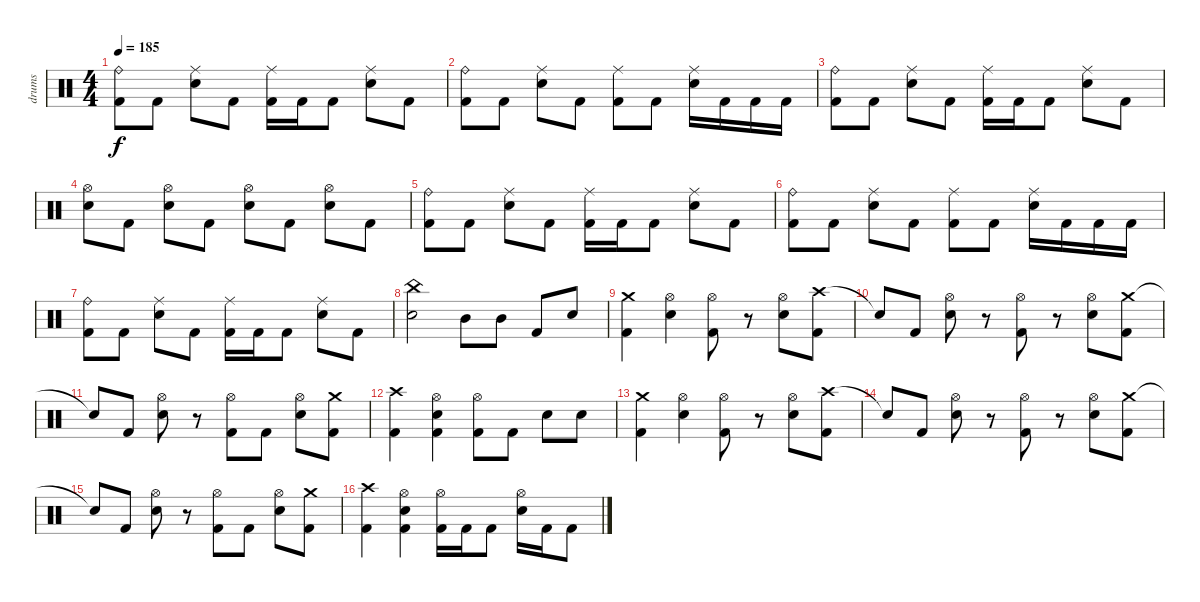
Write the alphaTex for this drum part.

\track ("drums" "drums") {instrument percussion}
\staff {score}
\articulation defaults
\ts (4 4)
\tempo 185
\clef neutral
\ks c
("Ride (bell)" "Kick (hit) 2").8{dy f} "Kick (hit) 2".8 ("Ride (middle)" "Snare (hit) 2").8 "Kick (hit) 2".8 ("Ride (middle)" "Kick (hit) 2").16 "Kick (hit) 2".16 "Kick (hit) 2".8 ("Ride (middle)" "Snare (hit) 2").8 "Kick (hit) 2".8 |
("Ride (bell)" "Kick (hit) 2").8 "Kick (hit) 2".8 ("Ride (middle)" "Snare (hit) 2").8 "Kick (hit) 2".8 ("Ride (middle)" "Kick (hit) 2").8 "Kick (hit) 2".8 ("Ride (middle)" "Snare (hit) 2").16 "Kick (hit) 2".16 "Kick (hit) 2".16 "Kick (hit) 2".16 |
("Ride (bell)" "Kick (hit) 2").8 "Kick (hit) 2".8 ("Ride (middle)" "Snare (hit) 2").8 "Kick (hit) 2".8 ("Ride (middle)" "Kick (hit) 2").16 "Kick (hit) 2".16 "Kick (hit) 2".8 ("Ride (middle)" "Snare (hit) 2").8 "Kick (hit) 2".8 |
("Hi-Hat (open)" "Snare (hit) 2").8 "Kick (hit) 2".8 ("Hi-Hat (open)" "Snare (hit) 2").8 "Kick (hit) 2".8 ("Hi-Hat (open)" "Snare (hit) 2").8 "Kick (hit) 2".8 ("Hi-Hat (open)" "Snare (hit) 2").8 "Kick (hit) 2".8 |
("Ride (bell)" "Kick (hit) 2").8 "Kick (hit) 2".8 ("Ride (middle)" "Snare (hit) 2").8 "Kick (hit) 2".8 ("Ride (middle)" "Kick (hit) 2").16 "Kick (hit) 2".16 "Kick (hit) 2".8 ("Ride (middle)" "Snare (hit) 2").8 "Kick (hit) 2".8 |
("Ride (bell)" "Kick (hit) 2").8 "Kick (hit) 2".8 ("Ride (middle)" "Snare (hit) 2").8 "Kick (hit) 2".8 ("Ride (middle)" "Kick (hit) 2").8 "Kick (hit) 2".8 ("Ride (middle)" "Snare (hit) 2").16 "Kick (hit) 2".16 "Kick (hit) 2".16 "Kick (hit) 2".16 |
("Ride (bell)" "Kick (hit) 2").8 "Kick (hit) 2".8 ("Ride (middle)" "Snare (hit) 2").8 "Kick (hit) 2".8 ("Ride (middle)" "Kick (hit) 2").16 "Kick (hit) 2".16 "Kick (hit) 2".8 ("Ride (middle)" "Snare (hit) 2").8 "Kick (hit) 2".8 |
("China (hit)" "Snare (hit) 2").2 "Mid Tom (hit)".8 "Mid Tom (hit)".8 "Kick (hit) 2".8 "Snare (hit) 2".8 |
("Crash medium (hit)" "Kick (hit) 2").4 ("Hi-Hat (open)" "Snare (hit) 2").4 ("Hi-Hat (open)" "Kick (hit) 2").8 r.8 ("Hi-Hat (open)" "Snare (hit) 2").8 ("Crash high (hit)" "Kick (hit) 2").8 |
"Snare (hit)"{t}.8 "Kick (hit) 2".8 ("Hi-Hat (open)" "Snare (hit) 2").8 r.8 ("Hi-Hat (open)" "Kick (hit) 2").8 r.8 ("Hi-Hat (open)" "Snare (hit) 2").8 ("Crash medium (hit)" "Kick (hit) 2").8 |
"Snare (hit)"{t}.8 "Kick (hit) 2".8 ("Hi-Hat (open)" "Snare (hit) 2").8 r.8 ("Hi-Hat (open)" "Kick (hit) 2").8 "Kick (hit) 2".8 ("Hi-Hat (open)" "Snare (hit) 2").8 ("Crash medium (hit)" "Kick (hit) 2").8 |
("Crash high (hit)" "Kick (hit) 2").4 ("Hi-Hat (open)" "Snare (hit) 2" "Kick (hit) 2").4 ("Hi-Hat (open)" "Kick (hit) 2").8 "Kick (hit) 2".8 "Snare (hit) 2".8 "Snare (hit) 2".8 |
("Crash medium (hit)" "Kick (hit) 2").4 ("Hi-Hat (open)" "Snare (hit) 2").4 ("Hi-Hat (open)" "Kick (hit) 2").8 r.8 ("Hi-Hat (open)" "Snare (hit) 2").8 ("Crash high (hit)" "Kick (hit) 2").8 |
"Snare (hit)"{t}.8 "Kick (hit) 2".8 ("Hi-Hat (open)" "Snare (hit) 2").8 r.8 ("Hi-Hat (open)" "Kick (hit) 2").8 r.8 ("Hi-Hat (open)" "Snare (hit) 2").8 ("Crash medium (hit)" "Kick (hit) 2").8 |
"Snare (hit)"{t}.8 "Kick (hit) 2".8 ("Hi-Hat (open)" "Snare (hit) 2").8 r.8 ("Hi-Hat (open)" "Kick (hit) 2").8 "Kick (hit) 2".8 ("Hi-Hat (open)" "Snare (hit) 2").8 ("Crash medium (hit)" "Kick (hit) 2").8 |
("Crash high (hit)" "Kick (hit) 2").4 ("Hi-Hat (open)" "Snare (hit) 2" "Kick (hit) 2").4 ("Hi-Hat (open)" "Kick (hit) 2").16 "Kick (hit) 2".16 "Kick (hit) 2".8 ("Hi-Hat (open)" "Snare (hit) 2").16 "Kick (hit) 2".16 "Kick (hit) 2".8
